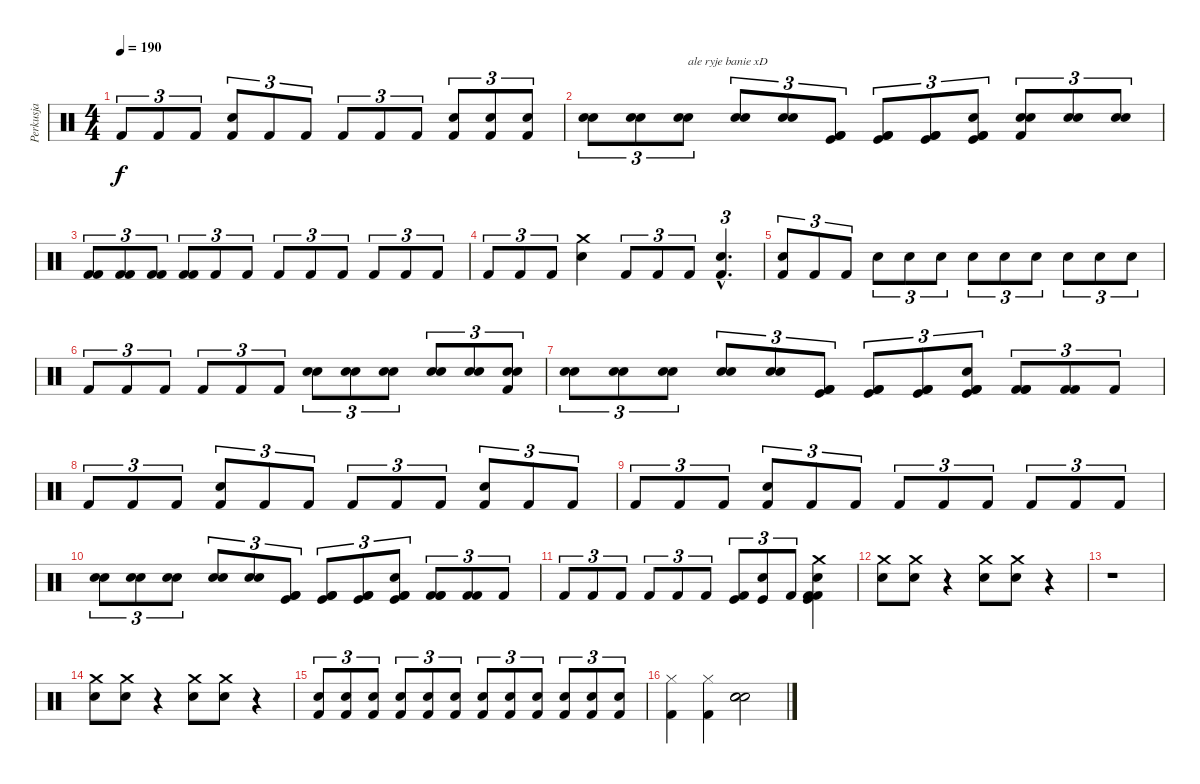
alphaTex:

\track ("Perkusja" "Perkusja") {instrument percussion}
\staff {score}
\articulation defaults
\ts (4 4)
\tempo 190
\clef neutral
\ks c "Kick (hit) 2".8{tu (3 2) dy f} "Kick (hit) 2".8{tu (3 2)} "Kick (hit) 2".8{tu (3 2)}
("Electric Snare (hit)" "Kick (hit) 2").8{tu (3 2)} "Kick (hit) 2".8{tu (3 2)} "Kick (hit) 2".8{tu (3 2)} "Kick (hit) 2".8{tu (3 2)} "Kick (hit) 2".8{tu (3 2)} "Kick (hit) 2".8{tu (3 2)} ("Electric Snare (hit)" "Kick (hit) 2").8{tu (3 2)} ("Electric Snare (hit)" "Kick (hit) 2").8{tu (3 2)} ("Electric Snare (hit)" "Kick (hit) 2").8{tu (3 2)} |
("Electric Snare (hit)" "Electric Snare (hit)").8{tu (3 2)} ("Electric Snare (hit)" "Electric Snare (hit)").8{tu (3 2)} ("Electric Snare (hit)" "Electric Snare (hit)").8{tu (3 2) txt "ale ryje banie xD"} ("Electric Snare (hit)" "Electric Snare (hit)").8{tu (3 2)} ("Electric Snare (hit)" "Electric Snare (hit)").8{tu (3 2)} ("Kick (hit) 2" "Kick (hit)" "Kick (hit) 2").8{tu (3 2)} ("Kick (hit) 2" "Kick (hit)" "Kick (hit) 2").8{tu (3 2)} ("Kick (hit) 2" "Kick (hit)" "Kick (hit) 2").8{tu (3 2)} ("Electric Snare (hit)" "Kick (hit) 2" "Kick (hit)" "Kick (hit) 2").8{tu (3 2)} ("Snare (hit)" "Electric Snare (hit)" "Kick (hit) 2").8{tu (3 2)} ("Electric Snare (hit)" "Electric Snare (hit)").8{tu (3 2)} ("Electric Snare (hit)" "Electric Snare (hit)").8{tu (3 2)} |
("Kick (hit) 2" "Kick (hit) 2").8{tu (3 2)} ("Kick (hit) 2" "Kick (hit) 2").8{tu (3 2)} ("Kick (hit) 2" "Kick (hit) 2").8{tu (3 2)} ("Kick (hit) 2" "Kick (hit) 2").8{tu (3 2)} "Kick (hit) 2".8{tu (3 2)} "Kick (hit) 2".8{tu (3 2)} "Kick (hit) 2".8{tu (3 2)} "Kick (hit) 2".8{tu (3 2)} "Kick (hit) 2".8{tu (3 2)} "Kick (hit) 2".8{tu (3 2)} "Kick (hit) 2".8{tu (3 2)} "Kick (hit) 2".8{tu (3 2)} |
"Kick (hit) 2".8{tu (3 2)} "Kick (hit) 2".8{tu (3 2)} "Kick (hit) 2".8{tu (3 2)} ("Crash medium (hit)" "Electric Snare (hit)").4 "Kick (hit) 2".8{tu (3 2)} "Kick (hit) 2".8{tu (3 2)} "Kick (hit) 2".8{tu (3 2)} ("Electric Snare (hit)"{hac} "Kick (hit) 2"{hac}).4{d tu (3 2)} |
("Snare (hit)" "Kick (hit) 2").8{tu (3 2)} "Kick (hit) 2".8{tu (3 2)} "Kick (hit) 2".8{tu (3 2)} "Electric Snare (hit)".8{tu (3 2)} "Electric Snare (hit)".8{tu (3 2)} "Electric Snare (hit)".8{tu (3 2)} "Electric Snare (hit)".8{tu (3 2)} "Electric Snare (hit)".8{tu (3 2)} "Electric Snare (hit)".8{tu (3 2)} "Electric Snare (hit)".8{tu (3 2)} "Electric Snare (hit)".8{tu (3 2)} "Electric Snare (hit)".8{tu (3 2)} |
"Kick (hit) 2".8{tu (3 2)} "Kick (hit) 2".8{tu (3 2)} "Kick (hit) 2".8{tu (3 2)} "Kick (hit) 2".8{tu (3 2)} "Kick (hit) 2".8{tu (3 2)} "Kick (hit) 2".8{tu (3 2)} ("Electric Snare (hit)" "Electric Snare (hit)").8{tu (3 2)} ("Electric Snare (hit)" "Electric Snare (hit)").8{tu (3 2)} ("Electric Snare (hit)" "Electric Snare (hit)").8{tu (3 2)} ("Electric Snare (hit)" "Electric Snare (hit)").8{tu (3 2)} ("Electric Snare (hit)" "Electric Snare (hit)").8{tu (3 2)} ("Kick (hit) 2" "Electric Snare (hit)" "Electric Snare (hit)").8{tu (3 2)} |
("Electric Snare (hit)" "Electric Snare (hit)").8{tu (3 2)} ("Electric Snare (hit)" "Electric Snare (hit)").8{tu (3 2)} ("Electric Snare (hit)" "Electric Snare (hit)").8{tu (3 2)} ("Electric Snare (hit)" "Electric Snare (hit)").8{tu (3 2)} ("Electric Snare (hit)" "Electric Snare (hit)").8{tu (3 2)} ("Kick (hit) 2" "Kick (hit)" "Kick (hit) 2").8{tu (3 2)} ("Kick (hit) 2" "Kick (hit)" "Kick (hit) 2").8{tu (3 2)} ("Kick (hit) 2" "Kick (hit)" "Kick (hit) 2").8{tu (3 2)} ("Electric Snare (hit)" "Kick (hit) 2" "Kick (hit)" "Kick (hit) 2").8{tu (3 2)} ("Kick (hit) 2" "Kick (hit) 2" "Kick (hit) 2").8{tu (3 2)} ("Kick (hit) 2" "Kick (hit) 2").8{tu (3 2)} "Kick (hit) 2".8{tu (3 2)} |
"Kick (hit) 2".8{tu (3 2)} "Kick (hit) 2".8{tu (3 2)} "Kick (hit) 2".8{tu (3 2)} ("Electric Snare (hit)" "Kick (hit) 2").8{tu (3 2)} "Kick (hit) 2".8{tu (3 2)} "Kick (hit) 2".8{tu (3 2)} "Kick (hit) 2".8{tu (3 2)} "Kick (hit) 2".8{tu (3 2)} "Kick (hit) 2".8{tu (3 2)} ("Electric Snare (hit)" "Kick (hit) 2").8{tu (3 2)} "Kick (hit) 2".8{tu (3 2)} "Kick (hit) 2".8{tu (3 2)} |
"Kick (hit) 2".8{tu (3 2)} "Kick (hit) 2".8{tu (3 2)} "Kick (hit) 2".8{tu (3 2)} ("Electric Snare (hit)" "Kick (hit) 2").8{tu (3 2)} "Kick (hit) 2".8{tu (3 2)} "Kick (hit) 2".8{tu (3 2)} "Kick (hit) 2".8{tu (3 2)} "Kick (hit) 2".8{tu (3 2)} "Kick (hit) 2".8{tu (3 2)} "Kick (hit) 2".8{tu (3 2)} "Kick (hit) 2".8{tu (3 2)} "Kick (hit) 2".8{tu (3 2)} |
("Electric Snare (hit)" "Electric Snare (hit)").8{tu (3 2)} ("Electric Snare (hit)" "Electric Snare (hit)").8{tu (3 2)} ("Electric Snare (hit)" "Electric Snare (hit)").8{tu (3 2)} ("Electric Snare (hit)" "Electric Snare (hit)").8{tu (3 2)} ("Electric Snare (hit)" "Electric Snare (hit)").8{tu (3 2)} ("Kick (hit) 2" "Kick (hit)" "Kick (hit) 2").8{tu (3 2)} ("Kick (hit) 2" "Kick (hit)" "Kick (hit) 2").8{tu (3 2)} ("Kick (hit) 2" "Kick (hit)" "Kick (hit) 2").8{tu (3 2)} ("Electric Snare (hit)" "Kick (hit) 2" "Kick (hit)" "Kick (hit) 2").8{tu (3 2)} ("Kick (hit) 2" "Kick (hit) 2" "Kick (hit) 2").8{tu (3 2)} ("Kick (hit) 2" "Kick (hit) 2").8{tu (3 2)} "Kick (hit) 2".8{tu (3 2)} |
"Kick (hit) 2".8{tu (3 2)} "Kick (hit) 2".8{tu (3 2)} "Kick (hit) 2".8{tu (3 2)} "Kick (hit) 2".8{tu (3 2)} "Kick (hit) 2".8{tu (3 2)} "Kick (hit) 2".8{tu (3 2)} ("Kick (hit) 2" "Kick (hit)").8{tu (3 2)} ("Kick (hit)" "Snare (hit)").8{tu (3 2)} "Kick (hit) 2".8{tu (3 2)} ("Electric Snare (hit)" "Crash medium (hit)" "Kick (hit)" "Kick (hit) 2" "Kick (hit) 2").4 |
("Crash medium (hit)" "Electric Snare (hit)").8 ("Crash medium (hit)" "Electric Snare (hit)").8 r.4 ("Crash medium (hit)" "Electric Snare (hit)").8 ("Crash medium (hit)" "Electric Snare (hit)").8 r.4 |
r.1 |
("Crash medium (hit)" "Electric Snare (hit)").8 ("Crash medium (hit)" "Electric Snare (hit)").8 r.4 ("Crash medium (hit)" "Electric Snare (hit)").8 ("Crash medium (hit)" "Electric Snare (hit)").8 r.4 |
("Kick (hit) 2" "Electric Snare (hit)").8{tu (3 2) balance 16} ("Kick (hit) 2" "Electric Snare (hit)").8{tu (3 2) balance 14} ("Kick (hit) 2" "Electric Snare (hit)").8{tu (3 2) balance 6} ("Kick (hit) 2" "Electric Snare (hit)").8{tu (3 2)} ("Kick (hit) 2" "Electric Snare (hit)").8{tu (3 2) balance 7} ("Kick (hit) 2" "Electric Snare (hit)").8{tu (3 2) balance 8} ("Kick (hit) 2" "Electric Snare (hit)").8{tu (3 2)} ("Kick (hit) 2" "Electric Snare (hit)").8{tu (3 2) balance 9} ("Kick (hit) 2" "Electric Snare (hit)").8{tu (3 2)} ("Kick (hit) 2" "Electric Snare (hit)").8{tu (3 2) balance 4} ("Kick (hit) 2" "Electric Snare (hit)").8{tu (3 2) balance 2} ("Kick (hit) 2" "Electric Snare (hit)").8{tu (3 2) balance 0} |
("Hi-Hat (closed)" "Kick (hit) 2").4{balance 8} ("Hi-Hat (closed)" "Kick (hit) 2").4 ("Electric Snare (hit)" "Electric Snare (hit)" "Electric Snare (hit)").2
